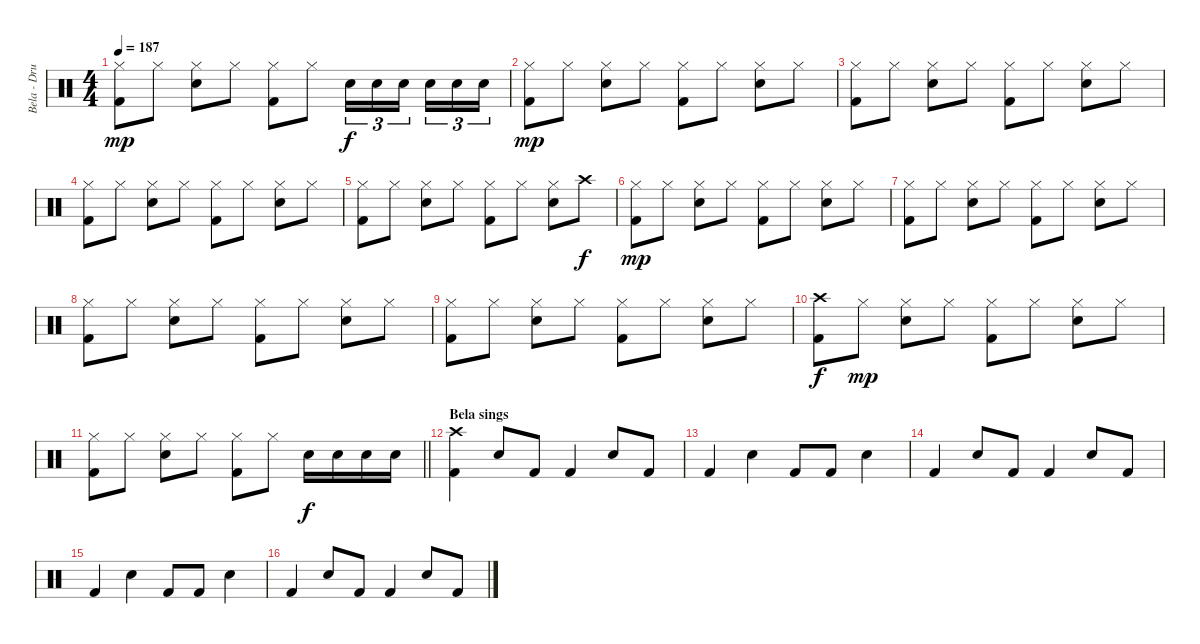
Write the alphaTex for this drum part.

\track ("Bela - Drums" "Bela - Dru") {instrument percussion}
\staff {score}
\articulation defaults
\ts (4 4)
\tempo 187
\clef neutral
\ks c
("Hi-Hat (closed)" "Kick (hit) 2").8{dy mp} "Hi-Hat (closed)".8 ("Hi-Hat (closed)" "Snare (hit) 2").8 "Hi-Hat (closed)".8 ("Hi-Hat (closed)" "Kick (hit) 2").8 "Hi-Hat (closed)".8 "Snare (hit) 2".16{tu (3 2) dy f} "Snare (hit) 2".16{tu (3 2)} "Snare (hit) 2".16{tu (3 2)} "Snare (hit) 2".16{tu (3 2)} "Snare (hit) 2".16{tu (3 2)} "Snare (hit) 2".16{tu (3 2)} |
("Hi-Hat (closed)" "Kick (hit) 2").8{dy mp} "Hi-Hat (closed)".8 ("Hi-Hat (closed)" "Snare (hit) 2").8 "Hi-Hat (closed)".8 ("Hi-Hat (closed)" "Kick (hit) 2").8 "Hi-Hat (closed)".8 ("Hi-Hat (closed)" "Snare (hit) 2").8 "Hi-Hat (closed)".8 |
("Hi-Hat (closed)" "Kick (hit) 2").8 "Hi-Hat (closed)".8 ("Hi-Hat (closed)" "Snare (hit) 2").8 "Hi-Hat (closed)".8 ("Hi-Hat (closed)" "Kick (hit) 2").8 "Hi-Hat (closed)".8 ("Hi-Hat (closed)" "Snare (hit) 2").8 "Hi-Hat (closed)".8 |
("Hi-Hat (closed)" "Kick (hit) 2").8 "Hi-Hat (closed)".8 ("Hi-Hat (closed)" "Snare (hit) 2").8 "Hi-Hat (closed)".8 ("Hi-Hat (closed)" "Kick (hit) 2").8 "Hi-Hat (closed)".8 ("Hi-Hat (closed)" "Snare (hit) 2").8 "Hi-Hat (closed)".8 |
("Hi-Hat (closed)" "Kick (hit) 2").8 "Hi-Hat (closed)".8 ("Hi-Hat (closed)" "Snare (hit) 2").8 "Hi-Hat (closed)".8 ("Hi-Hat (closed)" "Kick (hit) 2").8 "Hi-Hat (closed)".8 ("Hi-Hat (closed)" "Snare (hit) 2").8 "Crash high (hit)".8{dy f} |
("Hi-Hat (closed)" "Kick (hit) 2").8{dy mp} "Hi-Hat (closed)".8 ("Hi-Hat (closed)" "Snare (hit) 2").8 "Hi-Hat (closed)".8 ("Hi-Hat (closed)" "Kick (hit) 2").8 "Hi-Hat (closed)".8 ("Hi-Hat (closed)" "Snare (hit) 2").8 "Hi-Hat (closed)".8 |
("Hi-Hat (closed)" "Kick (hit) 2").8 "Hi-Hat (closed)".8 ("Hi-Hat (closed)" "Snare (hit) 2").8 "Hi-Hat (closed)".8 ("Hi-Hat (closed)" "Kick (hit) 2").8 "Hi-Hat (closed)".8 ("Hi-Hat (closed)" "Snare (hit) 2").8 "Hi-Hat (closed)".8 |
("Hi-Hat (closed)" "Kick (hit) 2").8 "Hi-Hat (closed)".8 ("Hi-Hat (closed)" "Snare (hit) 2").8 "Hi-Hat (closed)".8 ("Hi-Hat (closed)" "Kick (hit) 2").8 "Hi-Hat (closed)".8 ("Hi-Hat (closed)" "Snare (hit) 2").8 "Hi-Hat (closed)".8 |
("Hi-Hat (closed)" "Kick (hit) 2").8 "Hi-Hat (closed)".8 ("Hi-Hat (closed)" "Snare (hit) 2").8 "Hi-Hat (closed)".8 ("Hi-Hat (closed)" "Kick (hit) 2").8 "Hi-Hat (closed)".8 ("Hi-Hat (closed)" "Snare (hit) 2").8 "Hi-Hat (closed)".8 |
("Crash high (hit)" "Kick (hit) 2").8{dy f} "Hi-Hat (closed)".8{dy mp} ("Hi-Hat (closed)" "Snare (hit) 2").8 "Hi-Hat (closed)".8 ("Hi-Hat (closed)" "Kick (hit) 2").8 "Hi-Hat (closed)".8 ("Hi-Hat (closed)" "Snare (hit) 2").8 "Hi-Hat (closed)".8 |
\barLineRight lightlight
("Hi-Hat (closed)" "Kick (hit) 2").8 "Hi-Hat (closed)".8 ("Hi-Hat (closed)" "Snare (hit) 2").8 "Hi-Hat (closed)".8 ("Hi-Hat (closed)" "Kick (hit) 2").8 "Hi-Hat (closed)".8 "Snare (hit) 2".16{dy f} "Snare (hit) 2".16 "Snare (hit) 2".16 "Snare (hit) 2".16 |
\section ("" "Bela sings")
("Crash high (hit)" "Kick (hit) 2").4 "Snare (hit) 2".8 "Kick (hit) 2".8 "Kick (hit) 2".4 "Snare (hit) 2".8 "Kick (hit) 2".8 |
"Kick (hit) 2".4 "Snare (hit) 2".4 "Kick (hit) 2".8 "Kick (hit) 2".8 "Snare (hit) 2".4 |
"Kick (hit) 2".4 "Snare (hit) 2".8 "Kick (hit) 2".8 "Kick (hit) 2".4 "Snare (hit) 2".8 "Kick (hit) 2".8 |
"Kick (hit) 2".4 "Snare (hit) 2".4 "Kick (hit) 2".8 "Kick (hit) 2".8 "Snare (hit) 2".4 |
"Kick (hit) 2".4 "Snare (hit) 2".8 "Kick (hit) 2".8 "Kick (hit) 2".4 "Snare (hit) 2".8 "Kick (hit) 2".8
